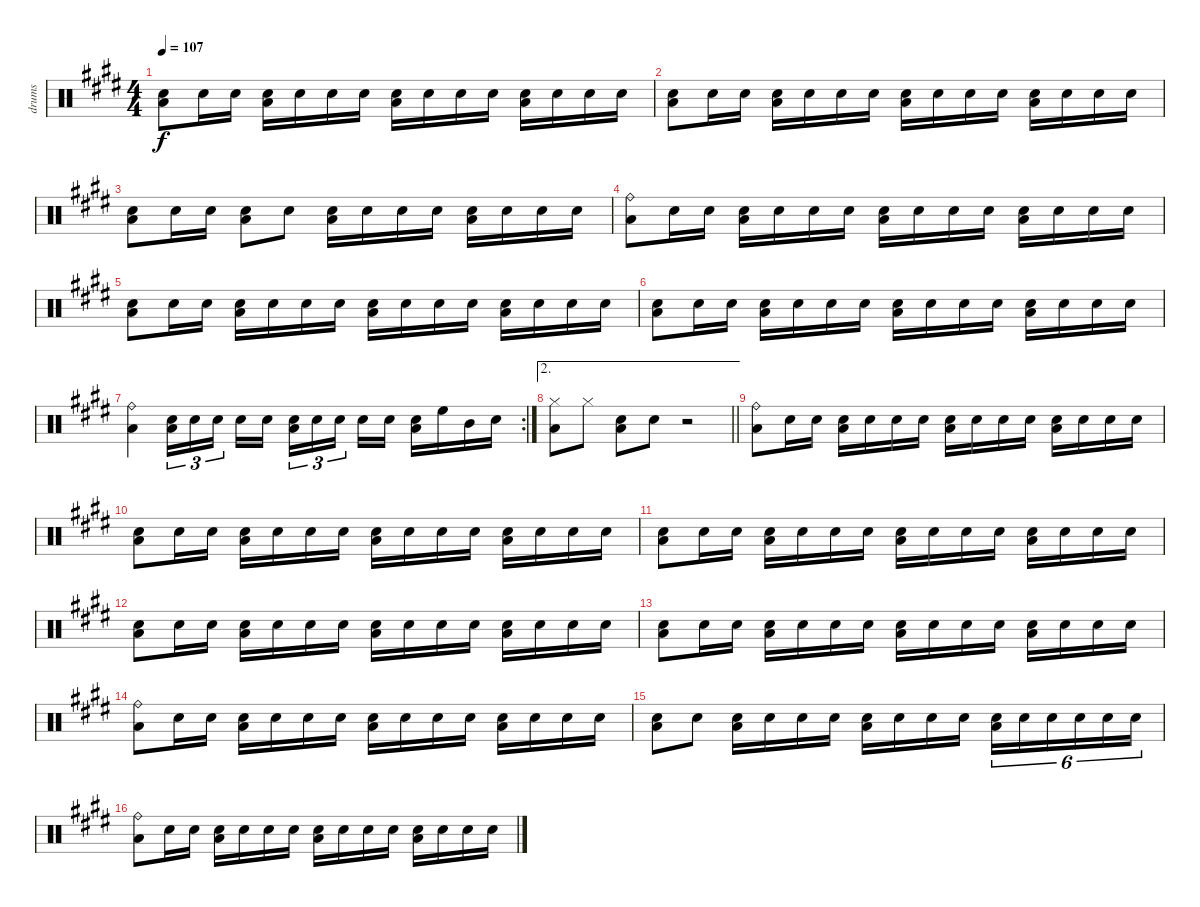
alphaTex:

\track ("drums" "drums") {instrument percussion}
\staff {score}
\articulation defaults
\ts (4 4)
\tempo 107
\clef neutral
\ks e
("Electric Snare (hit)" "Low Floor Tom (hit)").8{dy f} "Electric Snare (hit)".16 "Electric Snare (hit)".16 ("Electric Snare (hit)" "Low Floor Tom (hit)").16 "Electric Snare (hit)".16 "Electric Snare (hit)".16 "Electric Snare (hit)".16 ("Electric Snare (hit)" "Low Floor Tom (hit)").16 "Electric Snare (hit)".16 "Electric Snare (hit)".16 "Electric Snare (hit)".16 ("Electric Snare (hit)" "Low Floor Tom (hit)").16 "Electric Snare (hit)".16 "Electric Snare (hit)".16 "Electric Snare (hit)".16 |
("Electric Snare (hit)" "Low Floor Tom (hit)").8 "Electric Snare (hit)".16 "Electric Snare (hit)".16 ("Electric Snare (hit)" "Low Floor Tom (hit)").16 "Electric Snare (hit)".16 "Electric Snare (hit)".16 "Electric Snare (hit)".16 ("Electric Snare (hit)" "Low Floor Tom (hit)").16 "Electric Snare (hit)".16 "Electric Snare (hit)".16 "Electric Snare (hit)".16 ("Electric Snare (hit)" "Low Floor Tom (hit)").16 "Electric Snare (hit)".16 "Electric Snare (hit)".16 "Electric Snare (hit)".16 |
("Electric Snare (hit)" "Low Floor Tom (hit)").8 "Electric Snare (hit)".16 "Electric Snare (hit)".16 ("Electric Snare (hit)" "Low Floor Tom (hit)").8 "Electric Snare (hit)".8 ("Electric Snare (hit)" "Low Floor Tom (hit)").16 "Electric Snare (hit)".16 "Electric Snare (hit)".16 "Electric Snare (hit)".16 ("Electric Snare (hit)" "Low Floor Tom (hit)").16 "Electric Snare (hit)".16 "Electric Snare (hit)".16 "Electric Snare (hit)".16 |
("Ride (bell)" "Low Floor Tom (hit)").8 "Electric Snare (hit)".16 "Electric Snare (hit)".16 ("Electric Snare (hit)" "Low Floor Tom (hit)").16 "Electric Snare (hit)".16 "Electric Snare (hit)".16 "Electric Snare (hit)".16 ("Electric Snare (hit)" "Low Floor Tom (hit)").16 "Electric Snare (hit)".16 "Electric Snare (hit)".16 "Electric Snare (hit)".16 ("Electric Snare (hit)" "Low Floor Tom (hit)").16 "Electric Snare (hit)".16 "Electric Snare (hit)".16 "Electric Snare (hit)".16 |
("Electric Snare (hit)" "Low Floor Tom (hit)").8 "Electric Snare (hit)".16 "Electric Snare (hit)".16 ("Electric Snare (hit)" "Low Floor Tom (hit)").16 "Electric Snare (hit)".16 "Electric Snare (hit)".16 "Electric Snare (hit)".16 ("Electric Snare (hit)" "Low Floor Tom (hit)").16 "Electric Snare (hit)".16 "Electric Snare (hit)".16 "Electric Snare (hit)".16 ("Electric Snare (hit)" "Low Floor Tom (hit)").16 "Electric Snare (hit)".16 "Electric Snare (hit)".16 "Electric Snare (hit)".16 |
("Electric Snare (hit)" "Low Floor Tom (hit)").8 "Electric Snare (hit)".16 "Electric Snare (hit)".16 ("Electric Snare (hit)" "Low Floor Tom (hit)").16 "Electric Snare (hit)".16 "Electric Snare (hit)".16 "Electric Snare (hit)".16 ("Electric Snare (hit)" "Low Floor Tom (hit)").16 "Electric Snare (hit)".16 "Electric Snare (hit)".16 "Electric Snare (hit)".16 ("Electric Snare (hit)" "Low Floor Tom (hit)").16 "Electric Snare (hit)".16 "Electric Snare (hit)".16 "Electric Snare (hit)".16 |
\rc 2
("Ride (bell)" "Low Floor Tom (hit)").4 ("Electric Snare (hit)" "Low Floor Tom (hit)").16{tu (3 2)} "Electric Snare (hit)".16{tu (3 2)} "Electric Snare (hit)".16{tu (3 2)} "Electric Snare (hit)".16 "Electric Snare (hit)".16 ("Electric Snare (hit)" "Low Floor Tom (hit)").16{tu (3 2)} "Electric Snare (hit)".16{tu (3 2)} "Electric Snare (hit)".16{tu (3 2)} "Electric Snare (hit)".16 "Electric Snare (hit)".16 ("Electric Snare (hit)" "Low Floor Tom (hit)").16 "High Floor Tom (hit)".16 "Mid Tom (hit)".16 "Snare (hit) 2".16 |
\ae 2
\barLineRight lightlight
("Hi-Hat (closed)" "Low Floor Tom (hit)").8 "Hi-Hat (closed)".8 ("Electric Snare (hit)" "Low Floor Tom (hit)").8 "Electric Snare (hit)".8 r.2 |
("Ride (bell)" "Low Floor Tom (hit)").8 "Electric Snare (hit)".16 "Electric Snare (hit)".16 ("Electric Snare (hit)" "Low Floor Tom (hit)").16 "Electric Snare (hit)".16 "Electric Snare (hit)".16 "Electric Snare (hit)".16 ("Electric Snare (hit)" "Low Floor Tom (hit)").16 "Electric Snare (hit)".16 "Electric Snare (hit)".16 "Electric Snare (hit)".16 ("Electric Snare (hit)" "Low Floor Tom (hit)").16 "Electric Snare (hit)".16 "Electric Snare (hit)".16 "Electric Snare (hit)".16 |
("Electric Snare (hit)" "Low Floor Tom (hit)").8 "Electric Snare (hit)".16 "Electric Snare (hit)".16 ("Electric Snare (hit)" "Low Floor Tom (hit)").16 "Electric Snare (hit)".16 "Electric Snare (hit)".16 "Electric Snare (hit)".16 ("Electric Snare (hit)" "Low Floor Tom (hit)").16 "Electric Snare (hit)".16 "Electric Snare (hit)".16 "Electric Snare (hit)".16 ("Electric Snare (hit)" "Low Floor Tom (hit)").16 "Electric Snare (hit)".16 "Electric Snare (hit)".16 "Electric Snare (hit)".16 |
("Electric Snare (hit)" "Low Floor Tom (hit)").8 "Electric Snare (hit)".16 "Electric Snare (hit)".16 ("Electric Snare (hit)" "Low Floor Tom (hit)").16 "Electric Snare (hit)".16 "Electric Snare (hit)".16 "Electric Snare (hit)".16 ("Electric Snare (hit)" "Low Floor Tom (hit)").16 "Electric Snare (hit)".16 "Electric Snare (hit)".16 "Electric Snare (hit)".16 ("Electric Snare (hit)" "Low Floor Tom (hit)").16 "Electric Snare (hit)".16 "Electric Snare (hit)".16 "Electric Snare (hit)".16 |
("Electric Snare (hit)" "Low Floor Tom (hit)").8 "Electric Snare (hit)".16 "Electric Snare (hit)".16 ("Electric Snare (hit)" "Low Floor Tom (hit)").16 "Electric Snare (hit)".16 "Electric Snare (hit)".16 "Electric Snare (hit)".16 ("Electric Snare (hit)" "Low Floor Tom (hit)").16 "Electric Snare (hit)".16 "Electric Snare (hit)".16 "Electric Snare (hit)".16 ("Electric Snare (hit)" "Low Floor Tom (hit)").16 "Electric Snare (hit)".16 "Electric Snare (hit)".16 "Electric Snare (hit)".16 |
("Electric Snare (hit)" "Low Floor Tom (hit)").8 "Electric Snare (hit)".16 "Electric Snare (hit)".16 ("Electric Snare (hit)" "Low Floor Tom (hit)").16 "Electric Snare (hit)".16 "Electric Snare (hit)".16 "Electric Snare (hit)".16 ("Electric Snare (hit)" "Low Floor Tom (hit)").16 "Electric Snare (hit)".16 "Electric Snare (hit)".16 "Electric Snare (hit)".16 ("Electric Snare (hit)" "Low Floor Tom (hit)").16 "Electric Snare (hit)".16 "Electric Snare (hit)".16 "Electric Snare (hit)".16 |
("Ride (bell)" "Low Floor Tom (hit)").8 "Electric Snare (hit)".16 "Electric Snare (hit)".16 ("Electric Snare (hit)" "Low Floor Tom (hit)").16 "Electric Snare (hit)".16 "Electric Snare (hit)".16 "Electric Snare (hit)".16 ("Electric Snare (hit)" "Low Floor Tom (hit)").16 "Electric Snare (hit)".16 "Electric Snare (hit)".16 "Electric Snare (hit)".16 ("Electric Snare (hit)" "Low Floor Tom (hit)").16 "Electric Snare (hit)".16 "Electric Snare (hit)".16 "Electric Snare (hit)".16 |
("Electric Snare (hit)" "Low Floor Tom (hit)").8 "Electric Snare (hit)".8 ("Electric Snare (hit)" "Low Floor Tom (hit)").16 "Electric Snare (hit)".16 "Electric Snare (hit)".16 "Electric Snare (hit)".16 ("Electric Snare (hit)" "Low Floor Tom (hit)").16 "Electric Snare (hit)".16 "Electric Snare (hit)".16 "Electric Snare (hit)".16 ("Electric Snare (hit)" "Low Floor Tom (hit)").16{tu (6 4)} "Electric Snare (hit)".16{tu (6 4)} "Electric Snare (hit)".16{tu (6 4)} "Electric Snare (hit)".16{tu (6 4)} "Electric Snare (hit)".16{tu (6 4)} "Electric Snare (hit)".16{tu (6 4)} |
("Ride (bell)" "Low Floor Tom (hit)").8 "Electric Snare (hit)".16 "Electric Snare (hit)".16 ("Electric Snare (hit)" "Low Floor Tom (hit)").16 "Electric Snare (hit)".16 "Electric Snare (hit)".16 "Electric Snare (hit)".16 ("Electric Snare (hit)" "Low Floor Tom (hit)").16 "Electric Snare (hit)".16 "Electric Snare (hit)".16 "Electric Snare (hit)".16 ("Electric Snare (hit)" "Low Floor Tom (hit)").16 "Electric Snare (hit)".16 "Electric Snare (hit)".16 "Electric Snare (hit)".16
